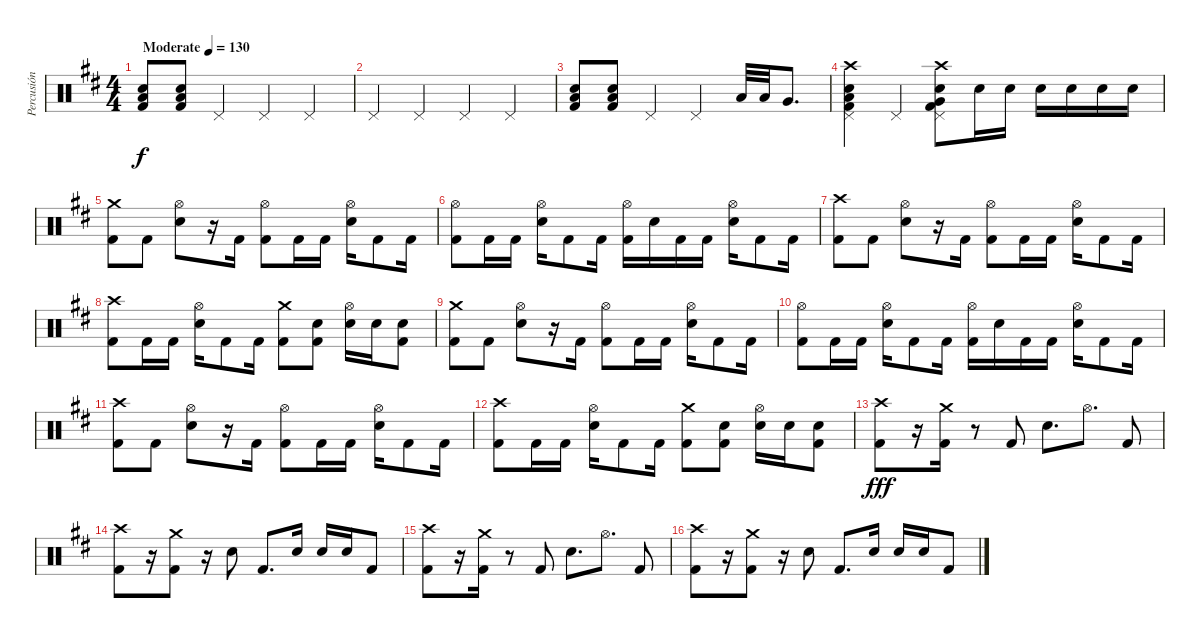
\track ("Percusión" "Percusión") {instrument percussion}
\staff {score}
\articulation defaults
\ts (4 4)
\tempo (130 "Moderate")
\clef neutral
\ks d
("Low Floor Tom (hit)" "Electric Snare (hit)" "Kick (hit) 2").8{dy f} ("Low Floor Tom (hit)" "Electric Snare (hit)" "Kick (hit) 2").8 "Pedal Hi-Hat (hit)".4 "Pedal Hi-Hat (hit)".4 "Pedal Hi-Hat (hit)".4 |
"Pedal Hi-Hat (hit)".4 "Pedal Hi-Hat (hit)".4 "Pedal Hi-Hat (hit)".4 "Pedal Hi-Hat (hit)".4 |
("Low Floor Tom (hit)" "Electric Snare (hit)" "Kick (hit) 2").8 ("Low Floor Tom (hit)" "Electric Snare (hit)" "Kick (hit) 2").8 "Pedal Hi-Hat (hit)".4 "Pedal Hi-Hat (hit)".4 "Low Tom (hit)".32 "Low Tom (hit)".32 "Very Low Tom (hit)".8{d} |
("Crash high (hit)" "Low Tom (hit)" "Pedal Hi-Hat (hit)" "Electric Snare (hit)" "Kick (hit) 2").4 "Pedal Hi-Hat (hit)".4 ("Crash high (hit)" "Very Low Tom (hit)" "Pedal Hi-Hat (hit)" "Electric Snare (hit)" "Kick (hit) 2").8 "Electric Snare (hit)".16 "Electric Snare (hit)".16 "Electric Snare (hit)".16 "Electric Snare (hit)".16 "Electric Snare (hit)".16 "Electric Snare (hit)".16 |
("Crash medium (hit)" "Kick (hit) 2").8 "Kick (hit) 2".8 ("Hi-Hat (open)" "Electric Snare (hit)").8 r.16 "Kick (hit) 2".16 ("Hi-Hat (open)" "Kick (hit) 2").8 "Kick (hit) 2".16 "Kick (hit) 2".16 ("Hi-Hat (open)" "Electric Snare (hit)").16 "Kick (hit) 2".8 "Kick (hit) 2".16 |
("Hi-Hat (open)" "Kick (hit) 2").8 "Kick (hit) 2".16 "Kick (hit) 2".16 ("Hi-Hat (open)" "Electric Snare (hit)").16 "Kick (hit) 2".8 "Kick (hit) 2".16 ("Hi-Hat (open)" "Kick (hit) 2").16 "Electric Snare (hit)".16 "Kick (hit) 2".16 "Kick (hit) 2".16 ("Hi-Hat (open)" "Electric Snare (hit)").16 "Kick (hit) 2".8 "Kick (hit) 2".16 |
("Crash high (hit)" "Kick (hit) 2").8 "Kick (hit) 2".8 ("Hi-Hat (open)" "Electric Snare (hit)").8 r.16 "Kick (hit) 2".16 ("Hi-Hat (open)" "Kick (hit) 2").8 "Kick (hit) 2".16 "Kick (hit) 2".16 ("Hi-Hat (open)" "Electric Snare (hit)").16 "Kick (hit) 2".8 "Kick (hit) 2".16 |
("Crash high (hit)" "Kick (hit) 2").8 "Kick (hit) 2".16 "Kick (hit) 2".16 ("Hi-Hat (open)" "Electric Snare (hit)").16 "Kick (hit) 2".8 "Kick (hit) 2".16 ("Crash medium (hit)" "Kick (hit) 2").8 ("Electric Snare (hit)" "Kick (hit) 2").8 ("Hi-Hat (open)" "Electric Snare (hit)").16 "Electric Snare (hit)".16 ("Electric Snare (hit)" "Kick (hit) 2").8 |
("Crash medium (hit)" "Kick (hit) 2").8 "Kick (hit) 2".8 ("Hi-Hat (open)" "Electric Snare (hit)").8 r.16 "Kick (hit) 2".16 ("Hi-Hat (open)" "Kick (hit) 2").8 "Kick (hit) 2".16 "Kick (hit) 2".16 ("Hi-Hat (open)" "Electric Snare (hit)").16 "Kick (hit) 2".8 "Kick (hit) 2".16 |
("Hi-Hat (open)" "Kick (hit) 2").8 "Kick (hit) 2".16 "Kick (hit) 2".16 ("Hi-Hat (open)" "Electric Snare (hit)").16 "Kick (hit) 2".8 "Kick (hit) 2".16 ("Hi-Hat (open)" "Kick (hit) 2").16 "Electric Snare (hit)".16 "Kick (hit) 2".16 "Kick (hit) 2".16 ("Hi-Hat (open)" "Electric Snare (hit)").16 "Kick (hit) 2".8 "Kick (hit) 2".16 |
("Crash high (hit)" "Kick (hit) 2").8 "Kick (hit) 2".8 ("Hi-Hat (open)" "Electric Snare (hit)").8 r.16 "Kick (hit) 2".16 ("Hi-Hat (open)" "Kick (hit) 2").8 "Kick (hit) 2".16 "Kick (hit) 2".16 ("Hi-Hat (open)" "Electric Snare (hit)").16 "Kick (hit) 2".8 "Kick (hit) 2".16 |
("Crash high (hit)" "Kick (hit) 2").8 "Kick (hit) 2".16 "Kick (hit) 2".16 ("Hi-Hat (open)" "Electric Snare (hit)").16 "Kick (hit) 2".8 "Kick (hit) 2".16 ("Crash medium (hit)" "Kick (hit) 2").8 ("Electric Snare (hit)" "Kick (hit) 2").8 ("Hi-Hat (open)" "Electric Snare (hit)").16 "Electric Snare (hit)".16 ("Electric Snare (hit)" "Kick (hit) 2").8 |
("Crash high (hit)" "Kick (hit) 2").8{dy fff} r.16 ("Crash medium (hit)" "Kick (hit) 2").16 r.8 "Kick (hit) 2".8 "Electric Snare (hit)".8{d} "Hi-Hat (open)".8{d} "Kick (hit) 2".8 |
("Crash high (hit)" "Kick (hit) 2").8 r.16 ("Crash medium (hit)" "Kick (hit) 2").8 r.16 "Electric Snare (hit)".8 "Kick (hit) 2".8{d} "Electric Snare (hit)".16 "Electric Snare (hit)".16 "Electric Snare (hit)".16 "Kick (hit) 2".8 |
("Crash high (hit)" "Kick (hit) 2").8 r.16 ("Crash medium (hit)" "Kick (hit) 2").16 r.8 "Kick (hit) 2".8 "Electric Snare (hit)".8{d} "Hi-Hat (open)".8{d} "Kick (hit) 2".8 |
("Crash high (hit)" "Kick (hit) 2").8 r.16 ("Crash medium (hit)" "Kick (hit) 2").8 r.16 "Electric Snare (hit)".8 "Kick (hit) 2".8{d} "Electric Snare (hit)".16 "Electric Snare (hit)".16 "Electric Snare (hit)".16 "Kick (hit) 2".8
